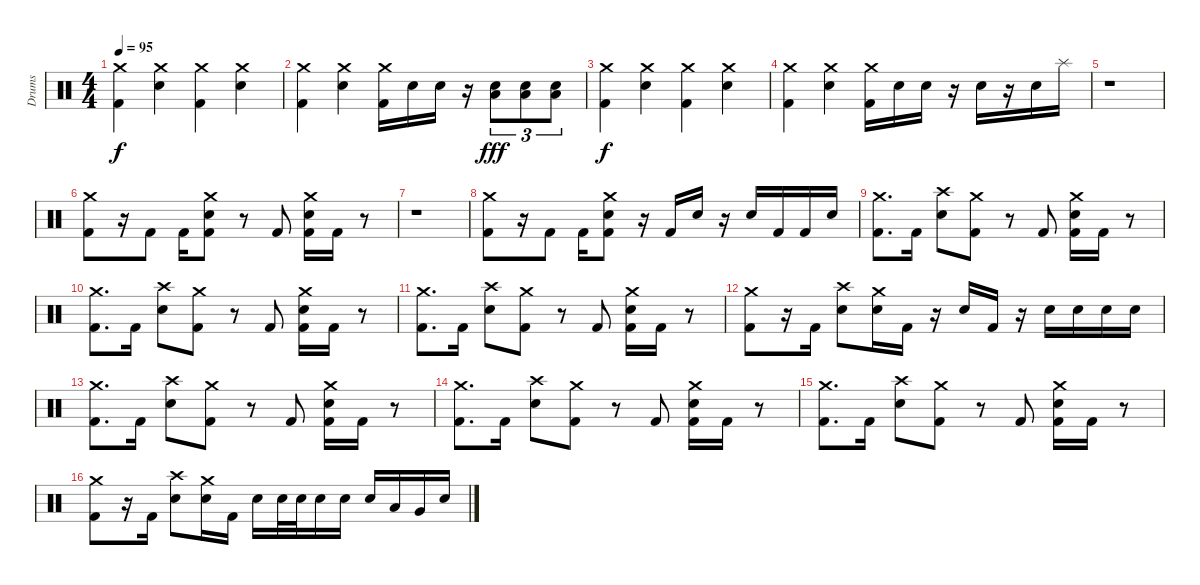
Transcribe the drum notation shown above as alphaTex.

\track ("Drums" "Drums") {instrument percussion}
\staff {score}
\articulation defaults
\ts (4 4)
\tempo 95
\clef neutral
\ks c
("Crash medium (hit)" "Kick (hit) 2").4{dy f} ("Crash medium (hit)" "Electric Snare (hit)").4 ("Crash medium (hit)" "Kick (hit) 2").4 ("Crash medium (hit)" "Electric Snare (hit)").4 |
("Crash medium (hit)" "Kick (hit) 2").4 ("Crash medium (hit)" "Electric Snare (hit)").4 ("Crash medium (hit)" "Kick (hit) 2").16 "Electric Snare (hit)".16 "Electric Snare (hit)".16 r.16 ("Low Floor Tom (hit)" "Electric Snare (hit)").8{tu (3 2) dy fff} ("Low Floor Tom (hit)" "Electric Snare (hit)").8{tu (3 2)} ("Low Floor Tom (hit)" "Electric Snare (hit)").8{tu (3 2)} |
("Crash medium (hit)" "Kick (hit) 2").4{dy f} ("Crash medium (hit)" "Electric Snare (hit)").4 ("Crash medium (hit)" "Kick (hit) 2").4 ("Crash medium (hit)" "Electric Snare (hit)").4 |
("Crash medium (hit)" "Kick (hit) 2").4 ("Crash medium (hit)" "Electric Snare (hit)").4 ("Crash medium (hit)" "Kick (hit) 2").16 "Electric Snare (hit)".16 "Electric Snare (hit)".16 r.16 "Electric Snare (hit)".16 r.16 "Electric Snare (hit)".16 "Splash (hit)".16 |
r.1 |
("Crash medium (hit)" "Kick (hit) 2").8 r.16 "Kick (hit) 2".8 "Kick (hit) 2".16 ("Crash medium (hit)" "Electric Snare (hit)" "Kick (hit) 2").8 r.8 "Kick (hit) 2".8 ("Crash medium (hit)" "Electric Snare (hit)" "Kick (hit) 2").16 "Kick (hit) 2".16 r.8 |
r.1 |
("Crash medium (hit)" "Kick (hit) 2").8 r.16 "Kick (hit) 2".8 "Kick (hit) 2".16 ("Crash medium (hit)" "Electric Snare (hit)" "Kick (hit) 2").8 r.16 "Kick (hit) 2".16 "Electric Snare (hit)".16 r.16 "Electric Snare (hit)".16 "Kick (hit) 2".16 "Kick (hit) 2".16 "Electric Snare (hit)".16 |
("Crash medium (hit)" "Kick (hit) 2").8{d} "Kick (hit) 2".16 ("Crash high (hit)" "Electric Snare (hit)").8 ("Crash medium (hit)" "Kick (hit) 2").8 r.8 "Kick (hit) 2".8 ("Crash medium (hit)" "Electric Snare (hit)" "Kick (hit) 2").16 "Kick (hit) 2".16 r.8 |
("Crash medium (hit)" "Kick (hit) 2").8{d} "Kick (hit) 2".16 ("Crash high (hit)" "Electric Snare (hit)").8 ("Crash medium (hit)" "Kick (hit) 2").8 r.8 "Kick (hit) 2".8 ("Crash medium (hit)" "Electric Snare (hit)" "Kick (hit) 2").16 "Kick (hit) 2".16 r.8 |
("Crash medium (hit)" "Kick (hit) 2").8{d} "Kick (hit) 2".16 ("Crash high (hit)" "Electric Snare (hit)").8 ("Crash medium (hit)" "Kick (hit) 2").8 r.8 "Kick (hit) 2".8 ("Crash medium (hit)" "Electric Snare (hit)" "Kick (hit) 2").16 "Kick (hit) 2".16 r.8 |
("Crash medium (hit)" "Kick (hit) 2").8 r.16 "Kick (hit) 2".16 ("Crash high (hit)" "Electric Snare (hit)").8 ("Crash medium (hit)" "Electric Snare (hit)").16 "Kick (hit) 2".16 r.16 "Electric Snare (hit)".16 "Kick (hit) 2".16 r.16 "Electric Snare (hit)".16 "Electric Snare (hit)".16 "Electric Snare (hit)".16 "Electric Snare (hit)".16 |
("Crash medium (hit)" "Kick (hit) 2").8{d} "Kick (hit) 2".16 ("Crash high (hit)" "Electric Snare (hit)").8 ("Crash medium (hit)" "Kick (hit) 2").8 r.8 "Kick (hit) 2".8 ("Crash medium (hit)" "Electric Snare (hit)" "Kick (hit) 2").16 "Kick (hit) 2".16 r.8 |
("Crash medium (hit)" "Kick (hit) 2").8{d} "Kick (hit) 2".16 ("Crash high (hit)" "Electric Snare (hit)").8 ("Crash medium (hit)" "Kick (hit) 2").8 r.8 "Kick (hit) 2".8 ("Crash medium (hit)" "Electric Snare (hit)" "Kick (hit) 2").16 "Kick (hit) 2".16 r.8 |
("Crash medium (hit)" "Kick (hit) 2").8{d} "Kick (hit) 2".16 ("Crash high (hit)" "Electric Snare (hit)").8 ("Crash medium (hit)" "Kick (hit) 2").8 r.8 "Kick (hit) 2".8 ("Crash medium (hit)" "Electric Snare (hit)" "Kick (hit) 2").16 "Kick (hit) 2".16 r.8 |
("Crash medium (hit)" "Kick (hit) 2").8 r.16 "Kick (hit) 2".16 ("Crash high (hit)" "Electric Snare (hit)").8 ("Crash medium (hit)" "Electric Snare (hit)").16 "Kick (hit) 2".16 "Electric Snare (hit)".16 "Electric Snare (hit)".32 "Electric Snare (hit)".32 "Electric Snare (hit)".16 "Electric Snare (hit)".16 "Electric Snare (hit)".16 "Low Tom (hit)".16 "Very Low Tom (hit)".16 "Electric Snare (hit)".16
